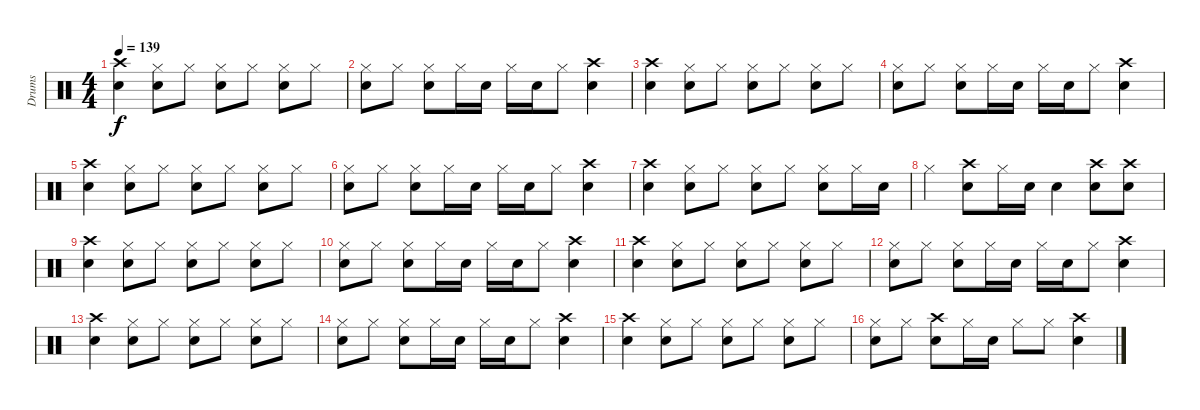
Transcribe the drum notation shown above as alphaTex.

\track ("Drums" "Drums") {instrument percussion}
\staff {score}
\articulation defaults
\ts (4 4)
\tempo 139
\clef neutral
\ks c
("Crash high (hit)" "Snare (hit) 2").4{dy f} ("Hi-Hat (closed)" "Snare (hit) 2").8 "Hi-Hat (closed)".8 ("Hi-Hat (closed)" "Snare (hit) 2").8 "Hi-Hat (closed)".8 ("Hi-Hat (closed)" "Snare (hit) 2").8 "Hi-Hat (closed)".8 |
("Hi-Hat (closed)" "Snare (hit) 2").8 "Hi-Hat (closed)".8 ("Hi-Hat (closed)" "Snare (hit) 2").8 "Hi-Hat (closed)".16 "Snare (hit) 2".16 "Hi-Hat (closed)".16 "Snare (hit) 2".16 "Hi-Hat (closed)".8 ("Crash high (hit)" "Snare (hit) 2").4 |
("Crash high (hit)" "Snare (hit) 2").4 ("Hi-Hat (closed)" "Snare (hit) 2").8 "Hi-Hat (closed)".8 ("Hi-Hat (closed)" "Snare (hit) 2").8 "Hi-Hat (closed)".8 ("Hi-Hat (closed)" "Snare (hit) 2").8 "Hi-Hat (closed)".8 |
("Hi-Hat (closed)" "Snare (hit) 2").8 "Hi-Hat (closed)".8 ("Hi-Hat (closed)" "Snare (hit) 2").8 "Hi-Hat (closed)".16 "Snare (hit) 2".16 "Hi-Hat (closed)".16 "Snare (hit) 2".16 "Hi-Hat (closed)".8 ("Crash high (hit)" "Snare (hit) 2").4 |
("Crash high (hit)" "Snare (hit) 2").4 ("Hi-Hat (closed)" "Snare (hit) 2").8 "Hi-Hat (closed)".8 ("Hi-Hat (closed)" "Snare (hit) 2").8 "Hi-Hat (closed)".8 ("Hi-Hat (closed)" "Snare (hit) 2").8 "Hi-Hat (closed)".8 |
("Hi-Hat (closed)" "Snare (hit) 2").8 "Hi-Hat (closed)".8 ("Hi-Hat (closed)" "Snare (hit) 2").8 "Hi-Hat (closed)".16 "Snare (hit) 2".16 "Hi-Hat (closed)".16 "Snare (hit) 2".16 "Hi-Hat (closed)".8 ("Crash high (hit)" "Snare (hit) 2").4 |
("Crash high (hit)" "Snare (hit) 2").4 ("Hi-Hat (closed)" "Snare (hit) 2").8 "Hi-Hat (closed)".8 ("Hi-Hat (closed)" "Snare (hit) 2").8 "Hi-Hat (closed)".8 ("Hi-Hat (closed)" "Snare (hit) 2").8 "Hi-Hat (closed)".16 "Snare (hit) 2".16 |
"Hi-Hat (closed)".4 ("Crash high (hit)" "Snare (hit) 2").8 "Hi-Hat (closed)".16 "Snare (hit) 2".16 "Snare (hit) 2".4 ("Crash high (hit)" "Snare (hit) 2").8 ("Crash high (hit)" "Snare (hit) 2").8 |
("Crash high (hit)" "Snare (hit) 2").4 ("Hi-Hat (closed)" "Snare (hit) 2").8 "Hi-Hat (closed)".8 ("Hi-Hat (closed)" "Snare (hit) 2").8 "Hi-Hat (closed)".8 ("Hi-Hat (closed)" "Snare (hit) 2").8 "Hi-Hat (closed)".8 |
("Hi-Hat (closed)" "Snare (hit) 2").8 "Hi-Hat (closed)".8 ("Hi-Hat (closed)" "Snare (hit) 2").8 "Hi-Hat (closed)".16 "Snare (hit) 2".16 "Hi-Hat (closed)".16 "Snare (hit) 2".16 "Hi-Hat (closed)".8 ("Crash high (hit)" "Snare (hit) 2").4 |
("Crash high (hit)" "Snare (hit) 2").4 ("Hi-Hat (closed)" "Snare (hit) 2").8 "Hi-Hat (closed)".8 ("Hi-Hat (closed)" "Snare (hit) 2").8 "Hi-Hat (closed)".8 ("Hi-Hat (closed)" "Snare (hit) 2").8 "Hi-Hat (closed)".8 |
("Hi-Hat (closed)" "Snare (hit) 2").8 "Hi-Hat (closed)".8 ("Hi-Hat (closed)" "Snare (hit) 2").8 "Hi-Hat (closed)".16 "Snare (hit) 2".16 "Hi-Hat (closed)".16 "Snare (hit) 2".16 "Hi-Hat (closed)".8 ("Crash high (hit)" "Snare (hit) 2").4 |
("Crash high (hit)" "Snare (hit) 2").4 ("Hi-Hat (closed)" "Snare (hit) 2").8 "Hi-Hat (closed)".8 ("Hi-Hat (closed)" "Snare (hit) 2").8 "Hi-Hat (closed)".8 ("Hi-Hat (closed)" "Snare (hit) 2").8 "Hi-Hat (closed)".8 |
("Hi-Hat (closed)" "Snare (hit) 2").8 "Hi-Hat (closed)".8 ("Hi-Hat (closed)" "Snare (hit) 2").8 "Hi-Hat (closed)".16 "Snare (hit) 2".16 "Hi-Hat (closed)".16 "Snare (hit) 2".16 "Hi-Hat (closed)".8 ("Crash high (hit)" "Snare (hit) 2").4 |
("Crash high (hit)" "Snare (hit) 2").4 ("Hi-Hat (closed)" "Snare (hit) 2").8 "Hi-Hat (closed)".8 ("Hi-Hat (closed)" "Snare (hit) 2").8 "Hi-Hat (closed)".8 ("Hi-Hat (closed)" "Snare (hit) 2").8 "Hi-Hat (closed)".8 |
("Hi-Hat (closed)" "Snare (hit) 2").8 "Hi-Hat (closed)".8 ("Crash high (hit)" "Snare (hit) 2").8 "Hi-Hat (closed)".16 "Snare (hit) 2".16 "Hi-Hat (closed)".8 "Hi-Hat (closed)".8 ("Crash high (hit)" "Snare (hit) 2").4
